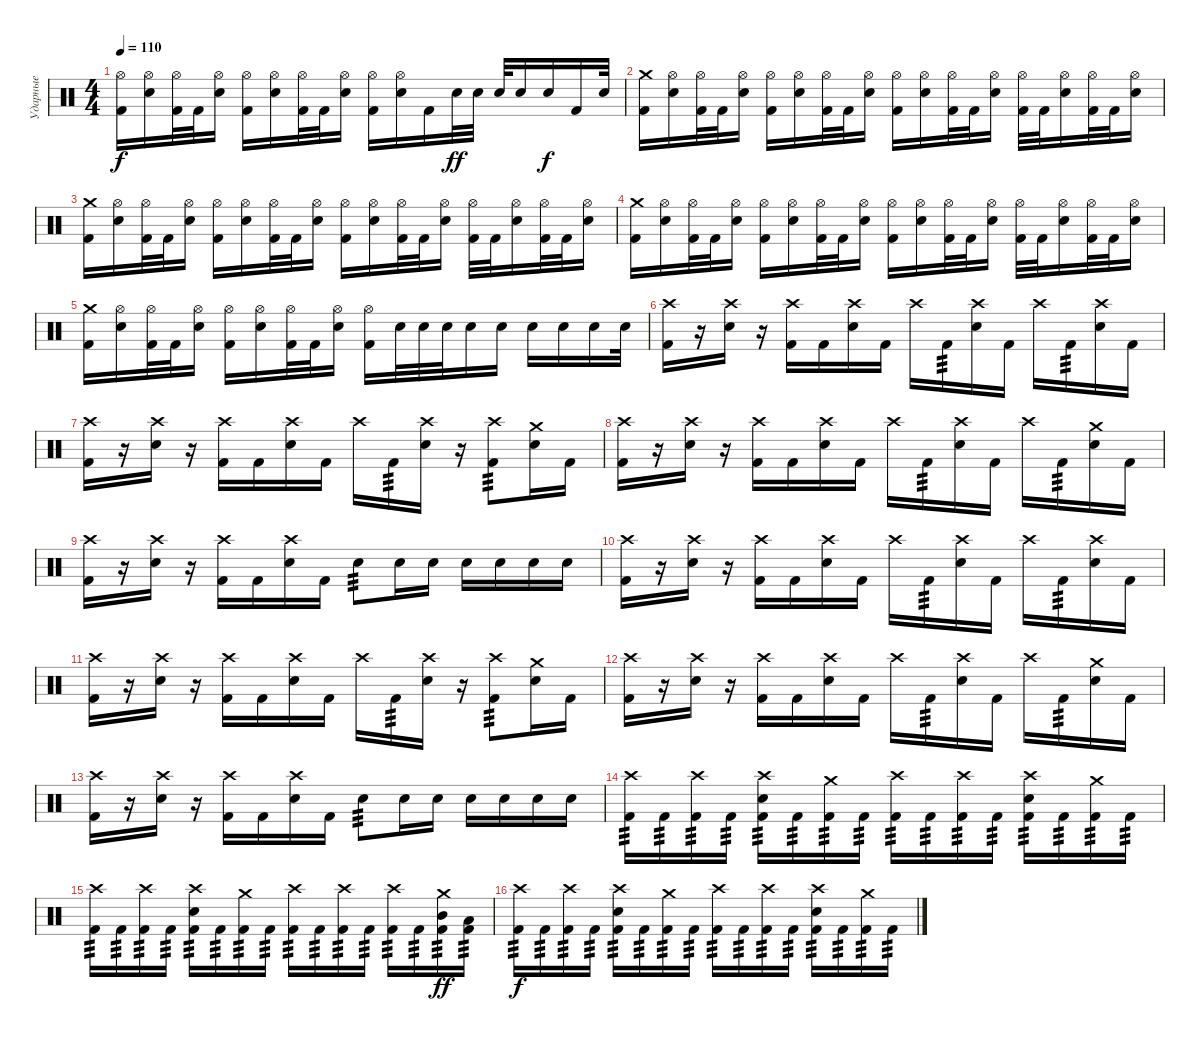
\track ("Ударные" "Ударные") {instrument percussion}
\staff {score}
\articulation defaults
\ts (4 4)
\tempo 110
\clef neutral
\ks c
("Hi-Hat (open)" "Kick (hit) 2").16{dy f} ("Hi-Hat (open)" "Snare (hit) 2").16 ("Hi-Hat (open)" "Kick (hit) 2").32 "Kick (hit) 2".32 ("Hi-Hat (open)" "Snare (hit) 2").16 ("Hi-Hat (open)" "Kick (hit) 2").16 ("Hi-Hat (open)" "Snare (hit) 2").16 ("Hi-Hat (open)" "Kick (hit) 2").32 "Kick (hit) 2".32 ("Hi-Hat (open)" "Snare (hit) 2").16 ("Hi-Hat (open)" "Kick (hit) 2").16 ("Hi-Hat (open)" "Snare (hit) 2").16 "Kick (hit) 2".16 "Snare (hit) 2".32{dy ff} "Snare (hit) 2".32 "Snare (hit) 2".32 "Snare (hit) 2".16 "Snare (hit) 2".16{dy f} "Kick (hit) 2".16 "Snare (hit) 2".32 |
("Crash medium (hit)" "Kick (hit) 2").16 ("Hi-Hat (open)" "Snare (hit) 2").16 ("Hi-Hat (open)" "Kick (hit) 2").32 "Kick (hit) 2".32 ("Hi-Hat (open)" "Snare (hit) 2").16 ("Hi-Hat (open)" "Kick (hit) 2").16 ("Hi-Hat (open)" "Snare (hit) 2").16 ("Hi-Hat (open)" "Kick (hit) 2").32 "Kick (hit) 2".32 ("Hi-Hat (open)" "Snare (hit) 2").16 ("Hi-Hat (open)" "Kick (hit) 2").16 ("Hi-Hat (open)" "Snare (hit) 2").16 ("Hi-Hat (open)" "Kick (hit) 2").32 "Kick (hit) 2".32 ("Hi-Hat (open)" "Snare (hit) 2").16 ("Hi-Hat (open)" "Kick (hit) 2").32 "Kick (hit) 2".32 ("Hi-Hat (open)" "Snare (hit) 2").16 ("Hi-Hat (open)" "Kick (hit) 2").32 "Kick (hit) 2".32 ("Hi-Hat (open)" "Snare (hit) 2").16 |
("Crash medium (hit)" "Kick (hit) 2").16 ("Hi-Hat (open)" "Snare (hit) 2").16 ("Hi-Hat (open)" "Kick (hit) 2").32 "Kick (hit) 2".32 ("Hi-Hat (open)" "Snare (hit) 2").16 ("Hi-Hat (open)" "Kick (hit) 2").16 ("Hi-Hat (open)" "Snare (hit) 2").16 ("Hi-Hat (open)" "Kick (hit) 2").32 "Kick (hit) 2".32 ("Hi-Hat (open)" "Snare (hit) 2").16 ("Hi-Hat (open)" "Kick (hit) 2").16 ("Hi-Hat (open)" "Snare (hit) 2").16 ("Hi-Hat (open)" "Kick (hit) 2").32 "Kick (hit) 2".32 ("Hi-Hat (open)" "Snare (hit) 2").16 ("Hi-Hat (open)" "Kick (hit) 2").32 "Kick (hit) 2".32 ("Hi-Hat (open)" "Snare (hit) 2").16 ("Hi-Hat (open)" "Kick (hit) 2").32 "Kick (hit) 2".32 ("Hi-Hat (open)" "Snare (hit) 2").16 |
("Crash medium (hit)" "Kick (hit) 2").16 ("Hi-Hat (open)" "Snare (hit) 2").16 ("Hi-Hat (open)" "Kick (hit) 2").32 "Kick (hit) 2".32 ("Hi-Hat (open)" "Snare (hit) 2").16 ("Hi-Hat (open)" "Kick (hit) 2").16 ("Hi-Hat (open)" "Snare (hit) 2").16 ("Hi-Hat (open)" "Kick (hit) 2").32 "Kick (hit) 2".32 ("Hi-Hat (open)" "Snare (hit) 2").16 ("Hi-Hat (open)" "Kick (hit) 2").16 ("Hi-Hat (open)" "Snare (hit) 2").16 ("Hi-Hat (open)" "Kick (hit) 2").32 "Kick (hit) 2".32 ("Hi-Hat (open)" "Snare (hit) 2").16 ("Hi-Hat (open)" "Kick (hit) 2").32 "Kick (hit) 2".32 ("Hi-Hat (open)" "Snare (hit) 2").16 ("Hi-Hat (open)" "Kick (hit) 2").32 "Kick (hit) 2".32 ("Hi-Hat (open)" "Snare (hit) 2").16 |
("Crash medium (hit)" "Kick (hit) 2").16 ("Hi-Hat (open)" "Snare (hit) 2").16 ("Hi-Hat (open)" "Kick (hit) 2").32 "Kick (hit) 2".32 ("Hi-Hat (open)" "Snare (hit) 2").16 ("Hi-Hat (open)" "Kick (hit) 2").16 ("Hi-Hat (open)" "Snare (hit) 2").16 ("Hi-Hat (open)" "Kick (hit) 2").32 "Kick (hit) 2".32 ("Hi-Hat (open)" "Snare (hit) 2").16 ("Hi-Hat (open)" "Kick (hit) 2").16 "Snare (hit) 2".32 "Snare (hit) 2".32 "Snare (hit) 2".32 "Snare (hit) 2".16 "Snare (hit) 2".16 "Snare (hit) 2".16 "Snare (hit) 2".16 "Snare (hit) 2".16 "Snare (hit) 2".32 |
("Crash high (hit)" "Kick (hit) 2").16 r.16 ("Crash high (hit)" "Snare (hit) 2").16 r.16 ("Crash high (hit)" "Kick (hit) 2").16 "Kick (hit) 2".16 ("Crash high (hit)" "Snare (hit) 2").16 "Kick (hit) 2".16 "Crash high (hit)".16 "Kick (hit) 2".16{tp 3} ("Crash high (hit)" "Snare (hit) 2").16 "Kick (hit) 2".16 "Crash high (hit)".16 "Kick (hit) 2".16{tp 3} ("Crash high (hit)" "Snare (hit) 2").16 "Kick (hit) 2".16 |
("Crash high (hit)" "Kick (hit) 2").16 r.16 ("Crash high (hit)" "Snare (hit) 2").16 r.16 ("Crash high (hit)" "Kick (hit) 2").16 "Kick (hit) 2".16 ("Crash high (hit)" "Snare (hit) 2").16 "Kick (hit) 2".16 "Crash high (hit)".16 "Kick (hit) 2".16{tp 3} ("Crash high (hit)" "Snare (hit) 2").16 r.16 ("Crash high (hit)" "Kick (hit) 2").8{tp 3} ("Crash medium (hit)" "Snare (hit) 2").16 "Kick (hit) 2".16 |
("Crash high (hit)" "Kick (hit) 2").16 r.16 ("Crash high (hit)" "Snare (hit) 2").16 r.16 ("Crash high (hit)" "Kick (hit) 2").16 "Kick (hit) 2".16 ("Crash high (hit)" "Snare (hit) 2").16 "Kick (hit) 2".16 "Crash high (hit)".16 "Kick (hit) 2".16{tp 3} ("Crash high (hit)" "Snare (hit) 2").16 "Kick (hit) 2".16 "Crash high (hit)".16 "Kick (hit) 2".16{tp 3} ("Crash medium (hit)" "Snare (hit) 2").16 "Kick (hit) 2".16 |
("Crash high (hit)" "Kick (hit) 2").16 r.16 ("Crash high (hit)" "Snare (hit) 2").16 r.16 ("Crash high (hit)" "Kick (hit) 2").16 "Kick (hit) 2".16 ("Crash high (hit)" "Snare (hit) 2").16 "Kick (hit) 2".16 "Snare (hit) 2".8{tp 3} "Snare (hit) 2".16 "Snare (hit) 2".16 "Snare (hit) 2".16 "Snare (hit) 2".16 "Snare (hit) 2".16 "Snare (hit) 2".16 |
("Crash high (hit)" "Kick (hit) 2").16 r.16 ("Crash high (hit)" "Snare (hit) 2").16 r.16 ("Crash high (hit)" "Kick (hit) 2").16 "Kick (hit) 2".16 ("Crash high (hit)" "Snare (hit) 2").16 "Kick (hit) 2".16 "Crash high (hit)".16 "Kick (hit) 2".16{tp 3} ("Crash high (hit)" "Snare (hit) 2").16 "Kick (hit) 2".16 "Crash high (hit)".16 "Kick (hit) 2".16{tp 3} ("Crash high (hit)" "Snare (hit) 2").16 "Kick (hit) 2".16 |
("Crash high (hit)" "Kick (hit) 2").16 r.16 ("Crash high (hit)" "Snare (hit) 2").16 r.16 ("Crash high (hit)" "Kick (hit) 2").16 "Kick (hit) 2".16 ("Crash high (hit)" "Snare (hit) 2").16 "Kick (hit) 2".16 "Crash high (hit)".16 "Kick (hit) 2".16{tp 3} ("Crash high (hit)" "Snare (hit) 2").16 r.16 ("Crash high (hit)" "Kick (hit) 2").8{tp 3} ("Crash medium (hit)" "Snare (hit) 2").16 "Kick (hit) 2".16 |
("Crash high (hit)" "Kick (hit) 2").16 r.16 ("Crash high (hit)" "Snare (hit) 2").16 r.16 ("Crash high (hit)" "Kick (hit) 2").16 "Kick (hit) 2".16 ("Crash high (hit)" "Snare (hit) 2").16 "Kick (hit) 2".16 "Crash high (hit)".16 "Kick (hit) 2".16{tp 3} ("Crash high (hit)" "Snare (hit) 2").16 "Kick (hit) 2".16 "Crash high (hit)".16 "Kick (hit) 2".16{tp 3} ("Crash medium (hit)" "Snare (hit) 2").16 "Kick (hit) 2".16 |
("Crash high (hit)" "Kick (hit) 2").16 r.16 ("Crash high (hit)" "Snare (hit) 2").16 r.16 ("Crash high (hit)" "Kick (hit) 2").16 "Kick (hit) 2".16 ("Crash high (hit)" "Snare (hit) 2").16 "Kick (hit) 2".16 "Snare (hit) 2".8{tp 3} "Snare (hit) 2".16 "Snare (hit) 2".16 "Snare (hit) 2".16 "Snare (hit) 2".16 "Snare (hit) 2".16 "Snare (hit) 2".16 |
("Crash high (hit)" "Kick (hit) 2").16{tp 3} "Kick (hit) 2".16{tp 3} ("Crash high (hit)" "Kick (hit) 2").16{tp 3} "Kick (hit) 2".16{tp 3} ("Crash high (hit)" "Snare (hit) 2" "Kick (hit) 2").16{tp 3} "Kick (hit) 2".16{tp 3} ("Crash medium (hit)" "Kick (hit) 2").16{tp 3} "Kick (hit) 2".16{tp 3} ("Crash high (hit)" "Kick (hit) 2").16{tp 3} "Kick (hit) 2".16{tp 3} ("Crash high (hit)" "Kick (hit) 2").16{tp 3} "Kick (hit) 2".16{tp 3} ("Crash high (hit)" "Snare (hit) 2" "Kick (hit) 2").16{tp 3} "Kick (hit) 2".16{tp 3} ("Crash medium (hit)" "Kick (hit) 2").16{tp 3} "Kick (hit) 2".16{tp 3} |
("Crash high (hit)" "Kick (hit) 2").16{tp 3} "Kick (hit) 2".16{tp 3} ("Crash high (hit)" "Kick (hit) 2").16{tp 3} "Kick (hit) 2".16{tp 3} ("Crash high (hit)" "Snare (hit) 2" "Kick (hit) 2").16{tp 3} "Kick (hit) 2".16{tp 3} ("Crash medium (hit)" "Kick (hit) 2").16{tp 3} "Kick (hit) 2".16{tp 3} ("Crash high (hit)" "Kick (hit) 2").16{tp 3} "Kick (hit) 2".16{tp 3} ("Crash high (hit)" "Kick (hit) 2").16{tp 3} "Kick (hit) 2".16{tp 3} ("Crash high (hit)" "Kick (hit) 2").16{tp 3} "Kick (hit) 2".16{tp 3} ("Crash medium (hit)" "Mid Tom (hit)" "Kick (hit) 2").16{tp 3 dy ff} ("Low Tom (hit)" "Kick (hit) 2").16{tp 3} |
("Crash high (hit)" "Kick (hit) 2").16{tp 3 dy f} "Kick (hit) 2".16{tp 3} ("Crash high (hit)" "Kick (hit) 2").16{tp 3} "Kick (hit) 2".16{tp 3} ("Crash high (hit)" "Snare (hit) 2" "Kick (hit) 2").16{tp 3} "Kick (hit) 2".16{tp 3} ("Crash medium (hit)" "Kick (hit) 2").16{tp 3} "Kick (hit) 2".16{tp 3} ("Crash high (hit)" "Kick (hit) 2").16{tp 3} "Kick (hit) 2".16{tp 3} ("Crash high (hit)" "Kick (hit) 2").16{tp 3} "Kick (hit) 2".16{tp 3} ("Crash high (hit)" "Snare (hit) 2" "Kick (hit) 2").16{tp 3} "Kick (hit) 2".16{tp 3} ("Crash medium (hit)" "Kick (hit) 2").16{tp 3} "Kick (hit) 2".16{tp 3}
